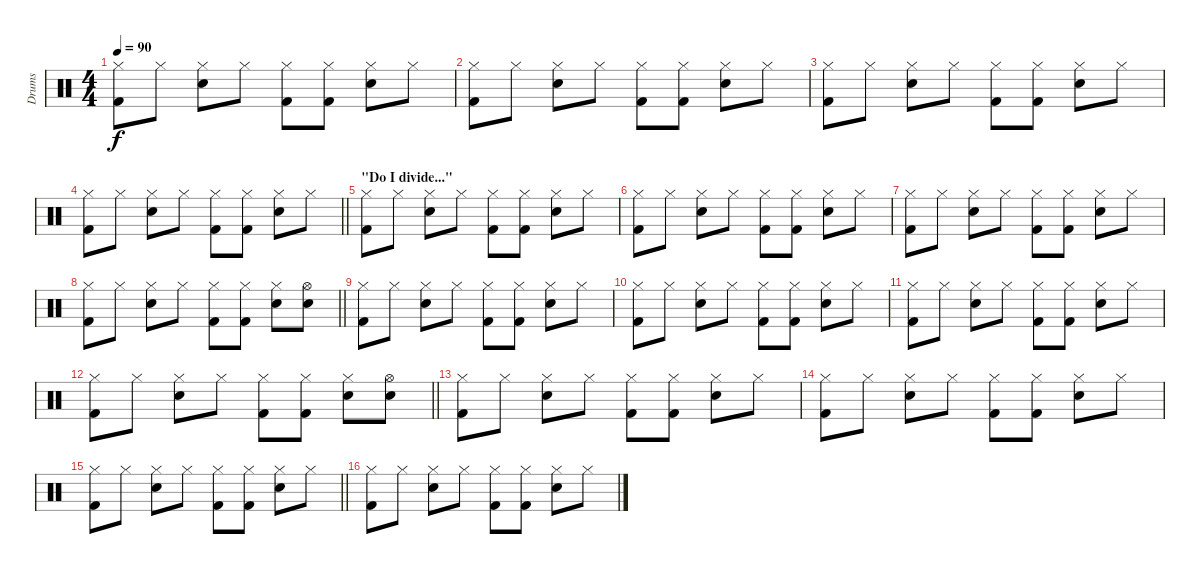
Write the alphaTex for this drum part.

\track ("Drums" "Drums") {instrument percussion}
\staff {score}
\articulation defaults
\ts (4 4)
\tempo 90
\clef neutral
\ks c
("Hi-Hat (closed)" "Kick (hit) 2").8{dy f} "Hi-Hat (closed)".8 ("Hi-Hat (closed)" "Electric Snare (hit)").8 "Hi-Hat (closed)".8 ("Hi-Hat (closed)" "Kick (hit) 2").8 ("Hi-Hat (closed)" "Kick (hit) 2").8 ("Hi-Hat (closed)" "Electric Snare (hit)").8 "Hi-Hat (closed)".8 |
("Hi-Hat (closed)" "Kick (hit) 2").8 "Hi-Hat (closed)".8 ("Hi-Hat (closed)" "Electric Snare (hit)").8 "Hi-Hat (closed)".8 ("Hi-Hat (closed)" "Kick (hit) 2").8 ("Hi-Hat (closed)" "Kick (hit) 2").8 ("Hi-Hat (closed)" "Electric Snare (hit)").8 "Hi-Hat (closed)".8 |
("Hi-Hat (closed)" "Kick (hit) 2").8 "Hi-Hat (closed)".8 ("Hi-Hat (closed)" "Electric Snare (hit)").8 "Hi-Hat (closed)".8 ("Hi-Hat (closed)" "Kick (hit) 2").8 ("Hi-Hat (closed)" "Kick (hit) 2").8 ("Hi-Hat (closed)" "Electric Snare (hit)").8 "Hi-Hat (closed)".8 |
\barLineRight lightlight
("Hi-Hat (closed)" "Kick (hit) 2").8 "Hi-Hat (closed)".8 ("Hi-Hat (closed)" "Electric Snare (hit)").8 "Hi-Hat (closed)".8 ("Hi-Hat (closed)" "Kick (hit) 2").8 ("Hi-Hat (closed)" "Kick (hit) 2").8 ("Hi-Hat (closed)" "Electric Snare (hit)").8 "Hi-Hat (closed)".8 |
\section ("" "\"Do I divide...\"")
("Hi-Hat (closed)" "Kick (hit) 2").8 "Hi-Hat (closed)".8 ("Hi-Hat (closed)" "Electric Snare (hit)").8 "Hi-Hat (closed)".8 ("Hi-Hat (closed)" "Kick (hit) 2").8 ("Hi-Hat (closed)" "Kick (hit) 2").8 ("Hi-Hat (closed)" "Electric Snare (hit)").8 "Hi-Hat (closed)".8 |
("Hi-Hat (closed)" "Kick (hit) 2").8 "Hi-Hat (closed)".8 ("Hi-Hat (closed)" "Electric Snare (hit)").8 "Hi-Hat (closed)".8 ("Hi-Hat (closed)" "Kick (hit) 2").8 ("Hi-Hat (closed)" "Kick (hit) 2").8 ("Hi-Hat (closed)" "Electric Snare (hit)").8 "Hi-Hat (closed)".8 |
("Hi-Hat (closed)" "Kick (hit) 2").8 "Hi-Hat (closed)".8 ("Hi-Hat (closed)" "Electric Snare (hit)").8 "Hi-Hat (closed)".8 ("Hi-Hat (closed)" "Kick (hit) 2").8 ("Hi-Hat (closed)" "Kick (hit) 2").8 ("Hi-Hat (closed)" "Electric Snare (hit)").8 "Hi-Hat (closed)".8 |
\barLineRight lightlight
("Hi-Hat (closed)" "Kick (hit) 2").8 "Hi-Hat (closed)".8 ("Hi-Hat (closed)" "Electric Snare (hit)").8 "Hi-Hat (closed)".8 ("Hi-Hat (closed)" "Kick (hit) 2").8 ("Hi-Hat (closed)" "Kick (hit) 2").8 ("Hi-Hat (closed)" "Electric Snare (hit)").8 ("Hi-Hat (open)" "Electric Snare (hit)").8 |
("Hi-Hat (closed)" "Kick (hit) 2").8 "Hi-Hat (closed)".8 ("Hi-Hat (closed)" "Electric Snare (hit)").8 "Hi-Hat (closed)".8 ("Hi-Hat (closed)" "Kick (hit) 2").8 ("Hi-Hat (closed)" "Kick (hit) 2").8 ("Hi-Hat (closed)" "Electric Snare (hit)").8 "Hi-Hat (closed)".8 |
("Hi-Hat (closed)" "Kick (hit) 2").8 "Hi-Hat (closed)".8 ("Hi-Hat (closed)" "Electric Snare (hit)").8 "Hi-Hat (closed)".8 ("Hi-Hat (closed)" "Kick (hit) 2").8 ("Hi-Hat (closed)" "Kick (hit) 2").8 ("Hi-Hat (closed)" "Electric Snare (hit)").8 "Hi-Hat (closed)".8 |
("Hi-Hat (closed)" "Kick (hit) 2").8 "Hi-Hat (closed)".8 ("Hi-Hat (closed)" "Electric Snare (hit)").8 "Hi-Hat (closed)".8 ("Hi-Hat (closed)" "Kick (hit) 2").8 ("Hi-Hat (closed)" "Kick (hit) 2").8 ("Hi-Hat (closed)" "Electric Snare (hit)").8 "Hi-Hat (closed)".8 |
\barLineRight lightlight
("Hi-Hat (closed)" "Kick (hit) 2").8 "Hi-Hat (closed)".8 ("Hi-Hat (closed)" "Electric Snare (hit)").8 "Hi-Hat (closed)".8 ("Hi-Hat (closed)" "Kick (hit) 2").8 ("Hi-Hat (closed)" "Kick (hit) 2").8 ("Hi-Hat (closed)" "Electric Snare (hit)").8 ("Hi-Hat (open)" "Electric Snare (hit)").8 |
("Hi-Hat (closed)" "Kick (hit) 2").8 "Hi-Hat (closed)".8 ("Hi-Hat (closed)" "Electric Snare (hit)").8 "Hi-Hat (closed)".8 ("Hi-Hat (closed)" "Kick (hit) 2").8 ("Hi-Hat (closed)" "Kick (hit) 2").8 ("Hi-Hat (closed)" "Electric Snare (hit)").8 "Hi-Hat (closed)".8 |
("Hi-Hat (closed)" "Kick (hit) 2").8 "Hi-Hat (closed)".8 ("Hi-Hat (closed)" "Electric Snare (hit)").8 "Hi-Hat (closed)".8 ("Hi-Hat (closed)" "Kick (hit) 2").8 ("Hi-Hat (closed)" "Kick (hit) 2").8 ("Hi-Hat (closed)" "Electric Snare (hit)").8 "Hi-Hat (closed)".8 |
\barLineRight lightlight
("Hi-Hat (closed)" "Kick (hit) 2").8 "Hi-Hat (closed)".8 ("Hi-Hat (closed)" "Electric Snare (hit)").8 "Hi-Hat (closed)".8 ("Hi-Hat (closed)" "Kick (hit) 2").8 ("Hi-Hat (closed)" "Kick (hit) 2").8 ("Hi-Hat (closed)" "Electric Snare (hit)").8 "Hi-Hat (closed)".8 |
("Hi-Hat (closed)" "Kick (hit) 2").8 "Hi-Hat (closed)".8 ("Hi-Hat (closed)" "Electric Snare (hit)").8 "Hi-Hat (closed)".8 ("Hi-Hat (closed)" "Kick (hit) 2").8 ("Hi-Hat (closed)" "Kick (hit) 2").8 ("Hi-Hat (closed)" "Electric Snare (hit)").8 "Hi-Hat (closed)".8
